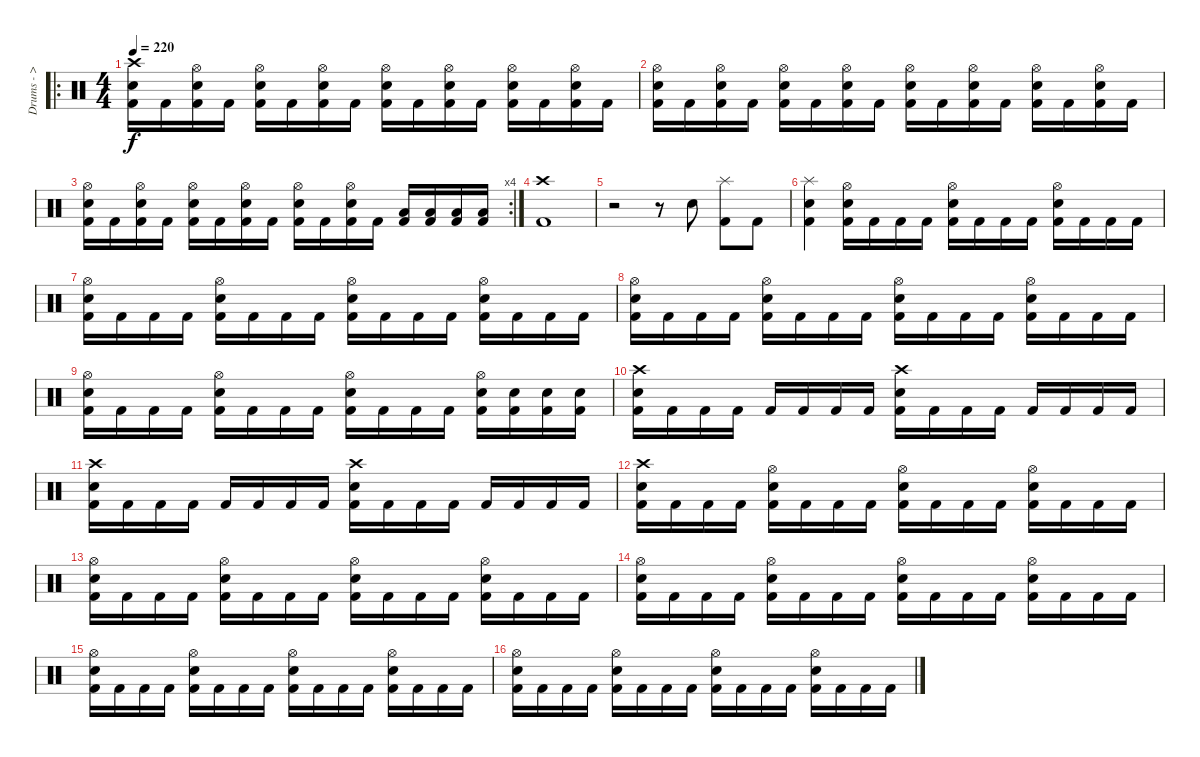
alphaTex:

\track ("Drums - > Nicholas" "Drums - > ") {instrument percussion}
\staff {score}
\articulation defaults
\ro
\ts (4 4)
\tempo 220
\clef neutral
\ks c
("Kick (hit) 2" "Snare (hit) 2" "Crash high (hit)").16{dy f} "Kick (hit) 2".16 ("Kick (hit) 2" "Snare (hit) 2" "Hi-Hat (open)").16 "Kick (hit) 2".16 ("Kick (hit) 2" "Snare (hit) 2" "Hi-Hat (open)").16 "Kick (hit) 2".16 ("Kick (hit) 2" "Snare (hit) 2" "Hi-Hat (open)").16 "Kick (hit) 2".16 ("Kick (hit) 2" "Snare (hit) 2" "Hi-Hat (open)").16 "Kick (hit) 2".16 ("Kick (hit) 2" "Snare (hit) 2" "Hi-Hat (open)").16 "Kick (hit) 2".16 ("Kick (hit) 2" "Snare (hit) 2" "Hi-Hat (open)").16 "Kick (hit) 2".16 ("Kick (hit) 2" "Snare (hit) 2" "Hi-Hat (open)").16 "Kick (hit) 2".16 |
("Kick (hit) 2" "Snare (hit) 2" "Hi-Hat (open)").16 "Kick (hit) 2".16 ("Kick (hit) 2" "Snare (hit) 2" "Hi-Hat (open)").16 "Kick (hit) 2".16 ("Kick (hit) 2" "Snare (hit) 2" "Hi-Hat (open)").16 "Kick (hit) 2".16 ("Kick (hit) 2" "Snare (hit) 2" "Hi-Hat (open)").16 "Kick (hit) 2".16 ("Kick (hit) 2" "Snare (hit) 2" "Hi-Hat (open)").16 "Kick (hit) 2".16 ("Kick (hit) 2" "Snare (hit) 2" "Hi-Hat (open)").16 "Kick (hit) 2".16 ("Kick (hit) 2" "Snare (hit) 2" "Hi-Hat (open)").16 "Kick (hit) 2".16 ("Kick (hit) 2" "Snare (hit) 2" "Hi-Hat (open)").16 "Kick (hit) 2".16 |
\rc 4
("Kick (hit) 2" "Snare (hit) 2" "Hi-Hat (open)").16 "Kick (hit) 2".16 ("Kick (hit) 2" "Snare (hit) 2" "Hi-Hat (open)").16 "Kick (hit) 2".16 ("Kick (hit) 2" "Snare (hit) 2" "Hi-Hat (open)").16 "Kick (hit) 2".16 ("Kick (hit) 2" "Snare (hit) 2" "Hi-Hat (open)").16 "Kick (hit) 2".16 ("Kick (hit) 2" "Snare (hit) 2" "Hi-Hat (open)").16 "Kick (hit) 2".16 ("Kick (hit) 2" "Snare (hit) 2" "Hi-Hat (open)").16 "Kick (hit) 2".16 ("Kick (hit) 2" "Low Tom (hit)").16 ("Kick (hit) 2" "Low Tom (hit)").16 ("Kick (hit) 2" "Low Tom (hit)").16 ("Kick (hit) 2" "Low Tom (hit)").16 |
("Kick (hit) 2" "Crash high (hit)").1 |
r.2 r.8 "Snare (hit) 2".8 ("Kick (hit) 2" "Splash (hit)").8 "Kick (hit) 2".8 |
("Kick (hit) 2" "Snare (hit) 2" "Splash (hit)").4 ("Kick (hit) 2" "Snare (hit) 2" "Hi-Hat (open)").16 "Kick (hit) 2".16 "Kick (hit) 2".16 "Kick (hit) 2".16 ("Kick (hit) 2" "Snare (hit) 2" "Hi-Hat (open)").16 "Kick (hit) 2".16 "Kick (hit) 2".16 "Kick (hit) 2".16 ("Kick (hit) 2" "Snare (hit) 2" "Hi-Hat (open)").16 "Kick (hit) 2".16 "Kick (hit) 2".16 "Kick (hit) 2".16 |
("Kick (hit) 2" "Snare (hit) 2" "Hi-Hat (open)").16 "Kick (hit) 2".16 "Kick (hit) 2".16 "Kick (hit) 2".16 ("Kick (hit) 2" "Snare (hit) 2" "Hi-Hat (open)").16 "Kick (hit) 2".16 "Kick (hit) 2".16 "Kick (hit) 2".16 ("Kick (hit) 2" "Snare (hit) 2" "Hi-Hat (open)").16 "Kick (hit) 2".16 "Kick (hit) 2".16 "Kick (hit) 2".16 ("Kick (hit) 2" "Snare (hit) 2" "Hi-Hat (open)").16 "Kick (hit) 2".16 "Kick (hit) 2".16 "Kick (hit) 2".16 |
("Kick (hit) 2" "Snare (hit) 2" "Hi-Hat (open)").16 "Kick (hit) 2".16 "Kick (hit) 2".16 "Kick (hit) 2".16 ("Kick (hit) 2" "Snare (hit) 2" "Hi-Hat (open)").16 "Kick (hit) 2".16 "Kick (hit) 2".16 "Kick (hit) 2".16 ("Kick (hit) 2" "Snare (hit) 2" "Hi-Hat (open)").16 "Kick (hit) 2".16 "Kick (hit) 2".16 "Kick (hit) 2".16 ("Kick (hit) 2" "Snare (hit) 2" "Hi-Hat (open)").16 "Kick (hit) 2".16 "Kick (hit) 2".16 "Kick (hit) 2".16 |
("Kick (hit) 2" "Snare (hit) 2" "Hi-Hat (open)").16 "Kick (hit) 2".16 "Kick (hit) 2".16 "Kick (hit) 2".16 ("Kick (hit) 2" "Snare (hit) 2" "Hi-Hat (open)").16 "Kick (hit) 2".16 "Kick (hit) 2".16 "Kick (hit) 2".16 ("Kick (hit) 2" "Snare (hit) 2" "Hi-Hat (open)").16 "Kick (hit) 2".16 "Kick (hit) 2".16 "Kick (hit) 2".16 ("Kick (hit) 2" "Snare (hit) 2" "Hi-Hat (open)").16 ("Kick (hit) 2" "Snare (hit) 2").16 ("Kick (hit) 2" "Snare (hit) 2").16 ("Kick (hit) 2" "Snare (hit) 2").16 |
("Kick (hit) 2" "Snare (hit) 2" "Crash high (hit)").16 "Kick (hit) 2".16 "Kick (hit) 2".16 "Kick (hit) 2".16 "Kick (hit) 2".16 "Kick (hit) 2".16 "Kick (hit) 2".16 "Kick (hit) 2".16 ("Kick (hit) 2" "Snare (hit) 2" "Crash high (hit)").16 "Kick (hit) 2".16 "Kick (hit) 2".16 "Kick (hit) 2".16 "Kick (hit) 2".16 "Kick (hit) 2".16 "Kick (hit) 2".16 "Kick (hit) 2".16 |
("Kick (hit) 2" "Snare (hit) 2" "Crash high (hit)").16 "Kick (hit) 2".16 "Kick (hit) 2".16 "Kick (hit) 2".16 "Kick (hit) 2".16 "Kick (hit) 2".16 "Kick (hit) 2".16 "Kick (hit) 2".16 ("Kick (hit) 2" "Snare (hit) 2" "Crash high (hit)").16 "Kick (hit) 2".16 "Kick (hit) 2".16 "Kick (hit) 2".16 "Kick (hit) 2".16 "Kick (hit) 2".16 "Kick (hit) 2".16 "Kick (hit) 2".16 |
("Kick (hit) 2" "Snare (hit) 2" "Crash high (hit)").16 "Kick (hit) 2".16 "Kick (hit) 2".16 "Kick (hit) 2".16 ("Kick (hit) 2" "Snare (hit) 2" "Hi-Hat (open)").16 "Kick (hit) 2".16 "Kick (hit) 2".16 "Kick (hit) 2".16 ("Kick (hit) 2" "Snare (hit) 2" "Hi-Hat (open)").16 "Kick (hit) 2".16 "Kick (hit) 2".16 "Kick (hit) 2".16 ("Kick (hit) 2" "Snare (hit) 2" "Hi-Hat (open)").16 "Kick (hit) 2".16 "Kick (hit) 2".16 "Kick (hit) 2".16 |
("Kick (hit) 2" "Snare (hit) 2" "Hi-Hat (open)").16 "Kick (hit) 2".16 "Kick (hit) 2".16 "Kick (hit) 2".16 ("Kick (hit) 2" "Snare (hit) 2" "Hi-Hat (open)").16 "Kick (hit) 2".16 "Kick (hit) 2".16 "Kick (hit) 2".16 ("Kick (hit) 2" "Snare (hit) 2" "Hi-Hat (open)").16 "Kick (hit) 2".16 "Kick (hit) 2".16 "Kick (hit) 2".16 ("Kick (hit) 2" "Snare (hit) 2" "Hi-Hat (open)").16 "Kick (hit) 2".16 "Kick (hit) 2".16 "Kick (hit) 2".16 |
("Kick (hit) 2" "Snare (hit) 2" "Hi-Hat (open)").16 "Kick (hit) 2".16 "Kick (hit) 2".16 "Kick (hit) 2".16 ("Kick (hit) 2" "Snare (hit) 2" "Hi-Hat (open)").16 "Kick (hit) 2".16 "Kick (hit) 2".16 "Kick (hit) 2".16 ("Kick (hit) 2" "Snare (hit) 2" "Hi-Hat (open)").16 "Kick (hit) 2".16 "Kick (hit) 2".16 "Kick (hit) 2".16 ("Kick (hit) 2" "Snare (hit) 2" "Hi-Hat (open)").16 "Kick (hit) 2".16 "Kick (hit) 2".16 "Kick (hit) 2".16 |
("Kick (hit) 2" "Snare (hit) 2" "Hi-Hat (open)").16 "Kick (hit) 2".16 "Kick (hit) 2".16 "Kick (hit) 2".16 ("Kick (hit) 2" "Snare (hit) 2" "Hi-Hat (open)").16 "Kick (hit) 2".16 "Kick (hit) 2".16 "Kick (hit) 2".16 ("Kick (hit) 2" "Snare (hit) 2" "Hi-Hat (open)").16 "Kick (hit) 2".16 "Kick (hit) 2".16 "Kick (hit) 2".16 ("Kick (hit) 2" "Snare (hit) 2" "Hi-Hat (open)").16 "Kick (hit) 2".16 "Kick (hit) 2".16 "Kick (hit) 2".16 |
("Kick (hit) 2" "Snare (hit) 2" "Hi-Hat (open)").16 "Kick (hit) 2".16 "Kick (hit) 2".16 "Kick (hit) 2".16 ("Kick (hit) 2" "Snare (hit) 2" "Hi-Hat (open)").16 "Kick (hit) 2".16 "Kick (hit) 2".16 "Kick (hit) 2".16 ("Kick (hit) 2" "Snare (hit) 2" "Hi-Hat (open)").16 "Kick (hit) 2".16 "Kick (hit) 2".16 "Kick (hit) 2".16 ("Kick (hit) 2" "Snare (hit) 2" "Hi-Hat (open)").16 "Kick (hit) 2".16 "Kick (hit) 2".16 "Kick (hit) 2".16
